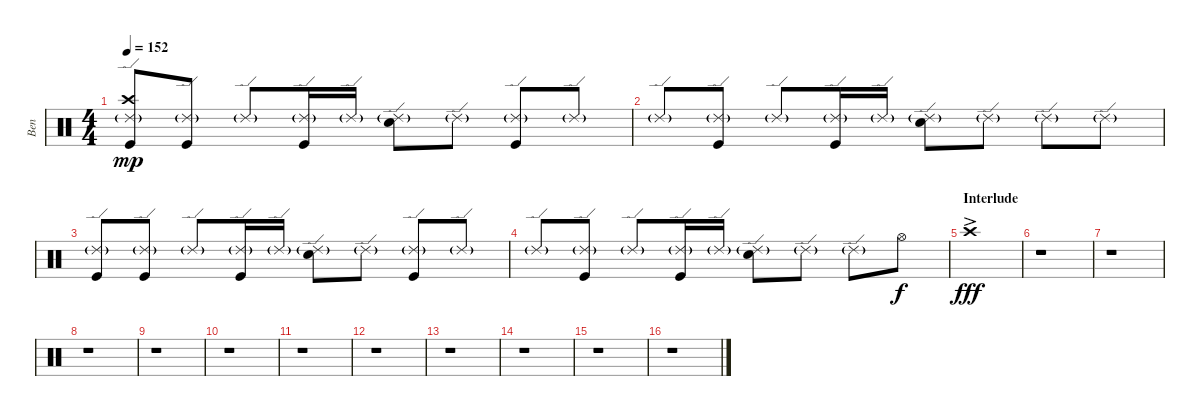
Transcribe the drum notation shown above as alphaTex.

\track ("Ben" "Ben") {instrument percussion}
\staff {score}
\articulation defaults
\ts (4 4)
\tempo 152
\clef neutral
\ks c
("Ride (edge) 2"{g} "Crash high (hit)" "Kick (hit)").8{dy mp} ("Ride (edge) 2"{g} "Kick (hit)").8 "Ride (edge) 2"{g}.8 ("Ride (edge) 2"{g} "Kick (hit)").16 "Ride (edge) 2"{g}.16 ("Ride (edge) 2"{g} "Electric Snare (hit)").8 "Ride (edge) 2"{g}.8 ("Ride (edge) 2"{g} "Kick (hit)").8 "Ride (edge) 2"{g}.8 |
"Ride (edge) 2"{g}.8 ("Ride (edge) 2"{g} "Kick (hit)").8 "Ride (edge) 2"{g}.8 ("Ride (edge) 2"{g} "Kick (hit)").16 "Ride (edge) 2"{g}.16 ("Ride (edge) 2"{g} "Electric Snare (hit)").8 "Ride (edge) 2"{g}.8 "Ride (edge) 2"{g}.8 "Ride (edge) 2"{g}.8 |
("Ride (edge) 2"{g} "Kick (hit)").8 ("Ride (edge) 2"{g} "Kick (hit)").8 "Ride (edge) 2"{g}.8 ("Ride (edge) 2"{g} "Kick (hit)").16 "Ride (edge) 2"{g}.16 ("Ride (edge) 2"{g} "Electric Snare (hit)").8 "Ride (edge) 2"{g}.8 ("Ride (edge) 2"{g} "Kick (hit)").8 "Ride (edge) 2"{g}.8 |
"Ride (edge) 2"{g}.8 ("Ride (edge) 2"{g} "Kick (hit)").8 "Ride (edge) 2"{g}.8 ("Ride (edge) 2"{g} "Kick (hit)").16 "Ride (edge) 2"{g}.16 ("Ride (edge) 2"{g} "Electric Snare (hit)").8 "Ride (edge) 2"{g}.8 "Ride (edge) 2"{g}.8 "Hi-Hat (open)".8{dy f} |
\section ("" "Interlude")
"Crash high (hit)"{ac}.1{dy fff} |
r.1 |
r.1 |
r.1 |
r.1 |
r.1 |
r.1 |
r.1 |
r.1 |
r.1 |
r.1 |
r.1
